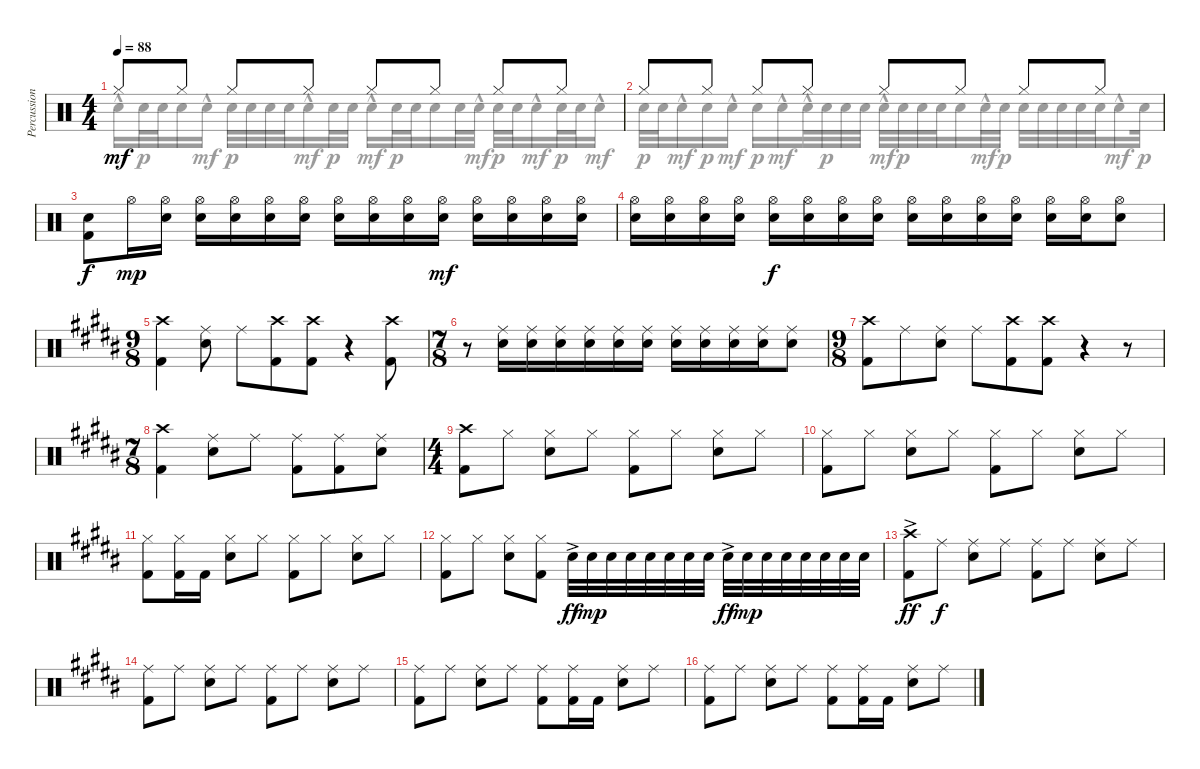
\track ("Percussion" "Percussion") {instrument percussion}
\staff {score}
\articulation defaults
\voice
\ts (4 4)
\tempo 88
\clef neutral
\ks aminor "Hi-Hat (closed)".8{dy mf} "Hi-Hat (closed)".8 "Hi-Hat (closed)".8 "Hi-Hat (closed)".8 "Hi-Hat (closed)".8 "Hi-Hat (closed)".8 "Hi-Hat (closed)".8 "Hi-Hat (closed)".8
|
"Hi-Hat (closed)".8 "Hi-Hat (closed)".8 "Hi-Hat (closed)".8 "Hi-Hat (closed)".8 "Hi-Hat (closed)".8 "Hi-Hat (closed)".8 "Hi-Hat (closed)".8 "Hi-Hat (closed)".8 |
("Snare (hit) 2" "Kick (hit) 2").8{dy f} "Hi-Hat (open)".16{dy mp} ("Hi-Hat (open)" "Snare (hit) 2").16 ("Hi-Hat (open)" "Snare (hit) 2").16 ("Hi-Hat (open)" "Snare (hit) 2").16 ("Hi-Hat (open)" "Snare (hit) 2").16 ("Hi-Hat (open)" "Snare (hit) 2").16 ("Hi-Hat (open)" "Snare (hit) 2").16 ("Hi-Hat (open)" "Snare (hit) 2").16 ("Hi-Hat (open)" "Snare (hit) 2").16 ("Hi-Hat (open)" "Snare (hit) 2").16{dy mf} ("Hi-Hat (open)" "Snare (hit) 2").16 ("Hi-Hat (open)" "Snare (hit) 2").16 ("Hi-Hat (open)" "Snare (hit) 2").16 ("Hi-Hat (open)" "Snare (hit) 2").16 |
("Hi-Hat (open)" "Snare (hit) 2").16 ("Hi-Hat (open)" "Snare (hit) 2").16 ("Hi-Hat (open)" "Snare (hit) 2").16 ("Hi-Hat (open)" "Snare (hit) 2").16 ("Hi-Hat (open)" "Snare (hit) 2").16{dy f} ("Hi-Hat (open)" "Snare (hit) 2").16 ("Hi-Hat (open)" "Snare (hit) 2").16 ("Hi-Hat (open)" "Snare (hit) 2").16 ("Hi-Hat (open)" "Snare (hit) 2").16 ("Hi-Hat (open)" "Snare (hit) 2").16 ("Hi-Hat (open)" "Snare (hit) 2").16 ("Hi-Hat (open)" "Snare (hit) 2").16 ("Hi-Hat (open)" "Snare (hit) 2").16 ("Hi-Hat (open)" "Snare (hit) 2").16 ("Hi-Hat (open)" "Snare (hit) 2").8 |
\ts (9 8)
\ks b
("Crash high (hit)" "Kick (hit) 2").4 ("Ride (middle)" "Snare (hit) 2").8 "Ride (middle)".8 ("Crash high (hit)" "Kick (hit) 2").8 ("Crash high (hit)" "Kick (hit) 2").8 r.4 ("Crash high (hit)" "Kick (hit) 2").8 |
\ts (7 8)
r.8 ("Ride (middle)" "Snare (hit) 2").16 ("Ride (middle)" "Snare (hit) 2").16 ("Ride (middle)" "Snare (hit) 2").16 ("Ride (middle)" "Snare (hit) 2").16 ("Ride (middle)" "Snare (hit) 2").16 ("Ride (middle)" "Snare (hit) 2").16 ("Ride (middle)" "Snare (hit) 2").16 ("Ride (middle)" "Snare (hit) 2").16 ("Ride (middle)" "Snare (hit) 2").16 ("Ride (middle)" "Snare (hit) 2").16 ("Ride (middle)" "Snare (hit) 2").8 |
\ts (9 8)
("Crash high (hit)" "Kick (hit) 2").8 "Ride (middle)".8 ("Ride (middle)" "Snare (hit) 2").8 "Ride (middle)".8 ("Crash high (hit)" "Kick (hit) 2").8 ("Crash high (hit)" "Kick (hit) 2").8 r.4 r.8 |
\ts (7 8)
("Crash high (hit)" "Kick (hit) 2").4 ("Ride (middle)" "Snare (hit) 2").8 "Ride (middle)".8 ("Ride (middle)" "Kick (hit) 2").8 ("Ride (middle)" "Kick (hit) 2").8 ("Ride (middle)" "Snare (hit) 2").8 |
\ts (4 4)
("Crash high (hit)" "Kick (hit) 2").8 "Hi-Hat (closed)".8 ("Hi-Hat (closed)" "Snare (hit) 2").8 "Hi-Hat (closed)".8 ("Hi-Hat (closed)" "Kick (hit) 2").8 "Hi-Hat (closed)".8 ("Hi-Hat (closed)" "Snare (hit) 2").8 "Hi-Hat (closed)".8 |
("Hi-Hat (closed)" "Kick (hit) 2").8 "Hi-Hat (closed)".8 ("Hi-Hat (closed)" "Snare (hit) 2").8 "Hi-Hat (closed)".8 ("Hi-Hat (closed)" "Kick (hit) 2").8 "Hi-Hat (closed)".8 ("Hi-Hat (closed)" "Snare (hit) 2").8 "Hi-Hat (closed)".8 |
("Hi-Hat (closed)" "Kick (hit) 2").8 ("Hi-Hat (closed)" "Kick (hit) 2").16 "Kick (hit) 2".16 ("Hi-Hat (closed)" "Snare (hit) 2").8 "Hi-Hat (closed)".8 ("Hi-Hat (closed)" "Kick (hit) 2").8 "Hi-Hat (closed)".8 ("Hi-Hat (closed)" "Snare (hit) 2").8 "Hi-Hat (closed)".8 |
("Hi-Hat (closed)" "Kick (hit) 2").8 "Hi-Hat (closed)".8 ("Hi-Hat (closed)" "Snare (hit) 2").8 ("Hi-Hat (closed)" "Kick (hit) 2").8 "Snare (hit) 2"{ac}.32{dy ff} "Snare (hit) 2".32{dy mp} "Snare (hit) 2".32 "Snare (hit) 2".32 "Snare (hit) 2".32 "Snare (hit) 2".32 "Snare (hit) 2".32 "Snare (hit) 2".32 "Snare (hit) 2"{ac}.32{dy ff} "Snare (hit) 2".32{dy mp} "Snare (hit) 2".32 "Snare (hit) 2".32 "Snare (hit) 2".32 "Snare (hit) 2".32 "Snare (hit) 2".32 "Snare (hit) 2".32 |
("Crash high (hit)"{ac} "Kick (hit) 2"{ac}).8{dy ff} "Ride (middle)".8{dy f} ("Ride (middle)" "Snare (hit) 2").8 "Ride (middle)".8 ("Ride (middle)" "Kick (hit) 2").8 "Ride (middle)".8 ("Ride (middle)" "Snare (hit) 2").8 "Ride (middle)".8 |
("Ride (middle)" "Kick (hit) 2").8 "Ride (middle)".8 ("Ride (middle)" "Snare (hit) 2").8 "Ride (middle)".8 ("Ride (middle)" "Kick (hit) 2").8 "Ride (middle)".8 ("Ride (middle)" "Snare (hit) 2").8 "Ride (middle)".8 |
("Ride (middle)" "Kick (hit) 2").8 "Ride (middle)".8 ("Ride (middle)" "Snare (hit) 2").8 "Ride (middle)".8 ("Ride (middle)" "Kick (hit) 2").8 ("Ride (middle)" "Kick (hit) 2").16 "Kick (hit) 2".16 ("Ride (middle)" "Snare (hit) 2").8 "Ride (middle)".8 |
("Ride (middle)" "Kick (hit) 2").8 "Ride (middle)".8 ("Ride (middle)" "Snare (hit) 2").8 "Ride (middle)".8 ("Ride (middle)" "Kick (hit) 2").8 ("Ride (middle)" "Kick (hit) 2").16 "Kick (hit) 2".16 ("Ride (middle)" "Snare (hit) 2").8 "Ride (middle)".8
\voice
\clef neutral
\ottava regular
\simile none
\ks aminor "Snare (hit) 2"{hac}.16{dy mf} "Snare (hit) 2".32{dy p} "Snare (hit) 2".32 "Snare (hit) 2".16 "Snare (hit) 2"{hac}.16{dy mf} "Snare (hit) 2".32{dy p} "Snare (hit) 2".32 "Snare (hit) 2".32 "Snare (hit) 2".32 "Snare (hit) 2"{hac}.16{dy mf} "Snare (hit) 2".32{dy p} "Snare (hit) 2".32 "Snare (hit) 2"{hac}.16{dy mf} "Snare (hit) 2".32{dy p} "Snare (hit) 2".32 "Snare (hit) 2".16 "Snare (hit) 2".32 "Snare (hit) 2"{hac}.32{dy mf} "Snare (hit) 2".32{dy p} "Snare (hit) 2".32 "Snare (hit) 2"{hac}.16{dy mf} "Snare (hit) 2".32{dy p} "Snare (hit) 2".32 "Snare (hit) 2"{hac}.16{dy mf}
|
"Snare (hit) 2".32{dy p} "Snare (hit) 2".32 "Snare (hit) 2"{hac}.16{dy mf} "Snare (hit) 2".16{dy p} "Snare (hit) 2"{hac}.16{dy mf} "Snare (hit) 2".16{dy p} "Snare (hit) 2"{hac}.16{dy mf} "Snare (hit) 2"{hac}.32 "Snare (hit) 2".32{dy p} "Snare (hit) 2".32 "Snare (hit) 2".32 "Snare (hit) 2"{hac}.32{dy mf} "Snare (hit) 2".32{dy p} "Snare (hit) 2".32 "Snare (hit) 2".32 "Snare (hit) 2".16 "Snare (hit) 2"{hac}.32{dy mf} "Snare (hit) 2".32{dy p} "Snare (hit) 2".32 "Snare (hit) 2".32 "Snare (hit) 2".32 "Snare (hit) 2".32 "Snare (hit) 2".32 "Snare (hit) 2"{hac}.16{dy mf} "Snare (hit) 2".32{dy p} |
|
|
\ks b
|
|
|
|
|
|
|
|
|
|
|
